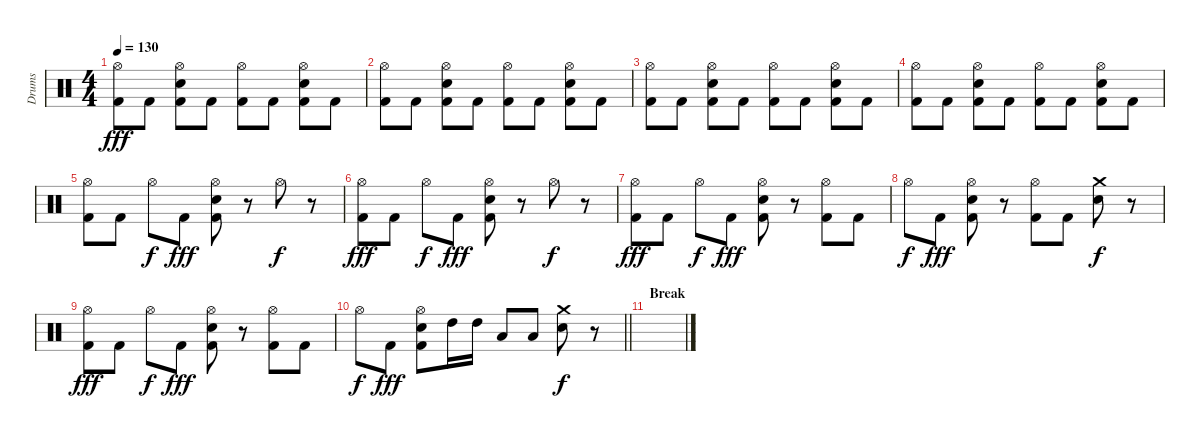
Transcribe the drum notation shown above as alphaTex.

\track ("Drums" "Drums") {instrument percussion}
\staff {score}
\articulation defaults
\ts (4 4)
\tempo 130
\clef neutral
\ks c
("Hi-Hat (open)" "Kick (hit) 2").8{dy fff} "Kick (hit) 2".8 ("Hi-Hat (open)" "Snare (hit) 2" "Kick (hit) 2").8 "Kick (hit) 2".8 ("Hi-Hat (open)" "Kick (hit) 2").8 "Kick (hit) 2".8 ("Hi-Hat (open)" "Snare (hit) 2" "Kick (hit) 2").8 "Kick (hit) 2".8 |
("Hi-Hat (open)" "Kick (hit) 2").8 "Kick (hit) 2".8 ("Hi-Hat (open)" "Snare (hit) 2" "Kick (hit) 2").8 "Kick (hit) 2".8 ("Hi-Hat (open)" "Kick (hit) 2").8 "Kick (hit) 2".8 ("Hi-Hat (open)" "Snare (hit) 2" "Kick (hit) 2").8 "Kick (hit) 2".8 |
("Hi-Hat (open)" "Kick (hit) 2").8 "Kick (hit) 2".8 ("Hi-Hat (open)" "Snare (hit) 2" "Kick (hit) 2").8 "Kick (hit) 2".8 ("Hi-Hat (open)" "Kick (hit) 2").8 "Kick (hit) 2".8 ("Hi-Hat (open)" "Snare (hit) 2" "Kick (hit) 2").8 "Kick (hit) 2".8 |
("Hi-Hat (open)" "Kick (hit) 2").8 "Kick (hit) 2".8 ("Hi-Hat (open)" "Snare (hit) 2" "Kick (hit) 2").8 "Kick (hit) 2".8 ("Hi-Hat (open)" "Kick (hit) 2").8 "Kick (hit) 2".8 ("Hi-Hat (open)" "Snare (hit) 2" "Kick (hit) 2").8 "Kick (hit) 2".8 |
("Hi-Hat (open)" "Kick (hit) 2").8 "Kick (hit) 2".8 "Hi-Hat (open)".8{dy f} "Kick (hit) 2".8{dy fff} ("Hi-Hat (open)" "Snare (hit) 2" "Kick (hit) 2").8 r.8 "Hi-Hat (open)".8{dy f} r.8 |
("Hi-Hat (open)" "Kick (hit) 2").8{dy fff} "Kick (hit) 2".8 "Hi-Hat (open)".8{dy f} "Kick (hit) 2".8{dy fff} ("Hi-Hat (open)" "Snare (hit) 2" "Kick (hit) 2").8 r.8 "Hi-Hat (open)".8{dy f} r.8 |
("Hi-Hat (open)" "Kick (hit) 2").8{dy fff} "Kick (hit) 2".8 "Hi-Hat (open)".8{dy f} "Kick (hit) 2".8{dy fff} ("Hi-Hat (open)" "Snare (hit) 2" "Kick (hit) 2").8 r.8 ("Hi-Hat (open)" "Kick (hit) 2").8 "Kick (hit) 2".8 |
"Hi-Hat (open)".8{dy f} "Kick (hit) 2".8{dy fff} ("Hi-Hat (open)" "Snare (hit) 2" "Kick (hit) 2").8 r.8 ("Hi-Hat (open)" "Kick (hit) 2").8 "Kick (hit) 2".8 ("Crash medium (hit)" "Snare (hit) 2").8{dy f} r.8 |
("Hi-Hat (open)" "Kick (hit) 2").8{dy fff} "Kick (hit) 2".8 "Hi-Hat (open)".8{dy f} "Kick (hit) 2".8{dy fff} ("Hi-Hat (open)" "Snare (hit) 2" "Kick (hit) 2").8 r.8 ("Hi-Hat (open)" "Kick (hit) 2").8 "Kick (hit) 2".8 |
\barLineRight lightlight "Hi-Hat (open)".8{dy f} "Kick (hit) 2".8{dy fff}
("Hi-Hat (open)" "Snare (hit) 2" "Kick (hit) 2").8 "High Tom (hit)".16 "High Tom (hit)".16 "Low Tom (hit)".8 "Low Tom (hit)".8 ("Crash medium (hit)" "Snare (hit) 2").8{dy f} r.8 |
\section ("" "Break")
